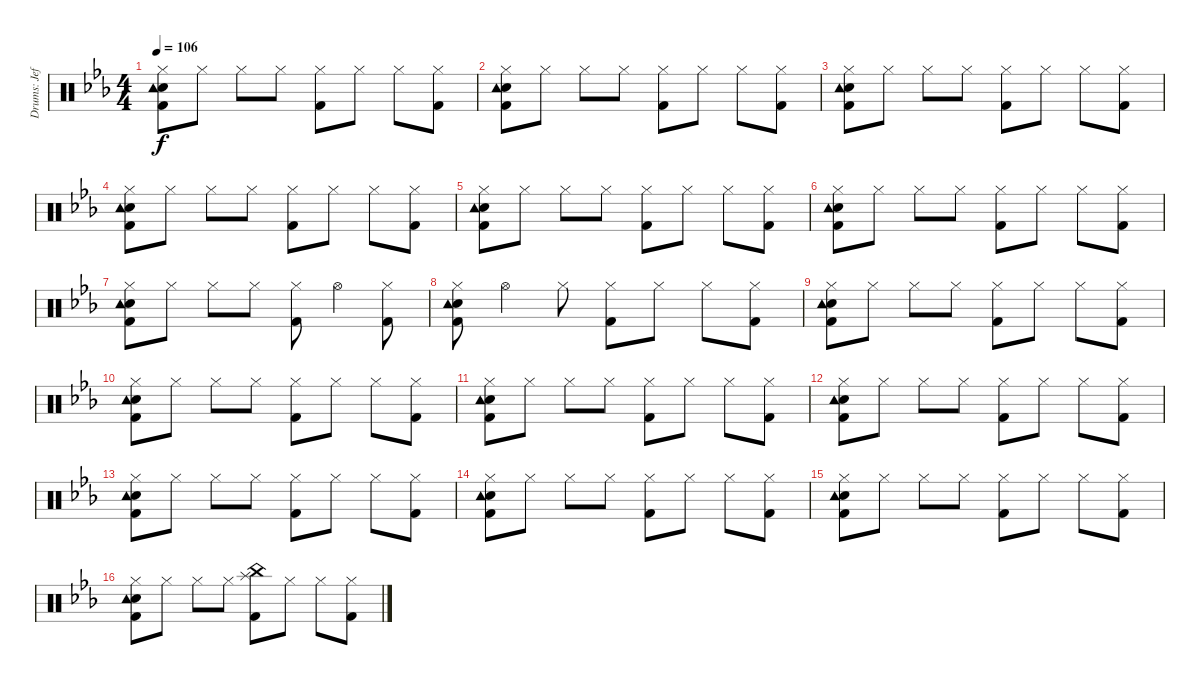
\track ("Drums: Jeff" "Drums: Jef") {instrument percussion}
\staff {score}
\articulation defaults
\ts (4 4)
\tempo 106
\clef neutral
\ks eb
("Hi-Hat (closed)" "Snare (hit) 2" "Tambourine (hit)" "Kick (hit) 2").8{dy f} "Hi-Hat (closed)".8 "Hi-Hat (closed)".8 "Hi-Hat (closed)".8 ("Hi-Hat (closed)" "Kick (hit) 2").8 "Hi-Hat (closed)".8 "Hi-Hat (closed)".8 ("Hi-Hat (closed)" "Kick (hit) 2").8 |
("Hi-Hat (closed)" "Snare (hit) 2" "Tambourine (hit)" "Kick (hit) 2").8 "Hi-Hat (closed)".8 "Hi-Hat (closed)".8 "Hi-Hat (closed)".8 ("Hi-Hat (closed)" "Kick (hit) 2").8 "Hi-Hat (closed)".8 "Hi-Hat (closed)".8 ("Hi-Hat (closed)" "Kick (hit) 2").8 |
("Hi-Hat (closed)" "Snare (hit) 2" "Tambourine (hit)" "Kick (hit) 2").8 "Hi-Hat (closed)".8 "Hi-Hat (closed)".8 "Hi-Hat (closed)".8 ("Hi-Hat (closed)" "Kick (hit) 2").8 "Hi-Hat (closed)".8 "Hi-Hat (closed)".8 ("Hi-Hat (closed)" "Kick (hit) 2").8 |
("Hi-Hat (closed)" "Snare (hit) 2" "Tambourine (hit)" "Kick (hit) 2").8 "Hi-Hat (closed)".8 "Hi-Hat (closed)".8 "Hi-Hat (closed)".8 ("Hi-Hat (closed)" "Kick (hit) 2").8 "Hi-Hat (closed)".8 "Hi-Hat (closed)".8 ("Hi-Hat (closed)" "Kick (hit) 2").8 |
("Hi-Hat (closed)" "Snare (hit) 2" "Tambourine (hit)" "Kick (hit) 2").8 "Hi-Hat (closed)".8 "Hi-Hat (closed)".8 "Hi-Hat (closed)".8 ("Hi-Hat (closed)" "Kick (hit) 2").8 "Hi-Hat (closed)".8 "Hi-Hat (closed)".8 ("Hi-Hat (closed)" "Kick (hit) 2").8 |
("Hi-Hat (closed)" "Snare (hit) 2" "Tambourine (hit)" "Kick (hit) 2").8 "Hi-Hat (closed)".8 "Hi-Hat (closed)".8 "Hi-Hat (closed)".8 ("Hi-Hat (closed)" "Kick (hit) 2").8 "Hi-Hat (closed)".8 "Hi-Hat (closed)".8 ("Hi-Hat (closed)" "Kick (hit) 2").8 |
("Hi-Hat (closed)" "Snare (hit) 2" "Tambourine (hit)" "Kick (hit) 2").8 "Hi-Hat (closed)".8 "Hi-Hat (closed)".8 "Hi-Hat (closed)".8 ("Hi-Hat (closed)" "Kick (hit) 2").8 "Hi-Hat (open)".4 ("Hi-Hat (closed)" "Kick (hit) 2").8 |
("Hi-Hat (closed)" "Snare (hit) 2" "Tambourine (hit)" "Kick (hit) 2").8 "Hi-Hat (open)".4 "Hi-Hat (closed)".8 ("Hi-Hat (closed)" "Kick (hit) 2").8 "Hi-Hat (closed)".8 "Hi-Hat (closed)".8 ("Hi-Hat (closed)" "Kick (hit) 2").8 |
("Hi-Hat (closed)" "Snare (hit) 2" "Tambourine (hit)" "Kick (hit) 2").8 "Hi-Hat (closed)".8 "Hi-Hat (closed)".8 "Hi-Hat (closed)".8 ("Hi-Hat (closed)" "Kick (hit) 2").8 "Hi-Hat (closed)".8 "Hi-Hat (closed)".8 ("Hi-Hat (closed)" "Kick (hit) 2").8 |
("Hi-Hat (closed)" "Snare (hit) 2" "Tambourine (hit)" "Kick (hit) 2").8 "Hi-Hat (closed)".8 "Hi-Hat (closed)".8 "Hi-Hat (closed)".8 ("Hi-Hat (closed)" "Kick (hit) 2").8 "Hi-Hat (closed)".8 "Hi-Hat (closed)".8 ("Hi-Hat (closed)" "Kick (hit) 2").8 |
("Hi-Hat (closed)" "Snare (hit) 2" "Tambourine (hit)" "Kick (hit) 2").8 "Hi-Hat (closed)".8 "Hi-Hat (closed)".8 "Hi-Hat (closed)".8 ("Hi-Hat (closed)" "Kick (hit) 2").8 "Hi-Hat (closed)".8 "Hi-Hat (closed)".8 ("Hi-Hat (closed)" "Kick (hit) 2").8 |
("Hi-Hat (closed)" "Snare (hit) 2" "Tambourine (hit)" "Kick (hit) 2").8 "Hi-Hat (closed)".8 "Hi-Hat (closed)".8 "Hi-Hat (closed)".8 ("Hi-Hat (closed)" "Kick (hit) 2").8 "Hi-Hat (closed)".8 "Hi-Hat (closed)".8 ("Hi-Hat (closed)" "Kick (hit) 2").8 |
("Hi-Hat (closed)" "Snare (hit) 2" "Tambourine (hit)" "Kick (hit) 2").8 "Hi-Hat (closed)".8 "Hi-Hat (closed)".8 "Hi-Hat (closed)".8 ("Hi-Hat (closed)" "Kick (hit) 2").8 "Hi-Hat (closed)".8 "Hi-Hat (closed)".8 ("Hi-Hat (closed)" "Kick (hit) 2").8 |
("Hi-Hat (closed)" "Snare (hit) 2" "Tambourine (hit)" "Kick (hit) 2").8 "Hi-Hat (closed)".8 "Hi-Hat (closed)".8 "Hi-Hat (closed)".8 ("Hi-Hat (closed)" "Kick (hit) 2").8 "Hi-Hat (closed)".8 "Hi-Hat (closed)".8 ("Hi-Hat (closed)" "Kick (hit) 2").8 |
("Hi-Hat (closed)" "Snare (hit) 2" "Tambourine (hit)" "Kick (hit) 2").8 "Hi-Hat (closed)".8 "Hi-Hat (closed)".8 "Hi-Hat (closed)".8 ("Hi-Hat (closed)" "Kick (hit) 2").8 "Hi-Hat (closed)".8 "Hi-Hat (closed)".8 ("Hi-Hat (closed)" "Kick (hit) 2").8 |
("Hi-Hat (closed)" "Snare (hit) 2" "Tambourine (hit)" "Kick (hit) 2").8 "Hi-Hat (closed)".8 "Hi-Hat (closed)".8 "Hi-Hat (closed)".8 ("China (hit)" "Splash (hit)" "Kick (hit) 2").8 "Hi-Hat (closed)".8 "Hi-Hat (closed)".8 ("Hi-Hat (closed)" "Kick (hit) 2").8
